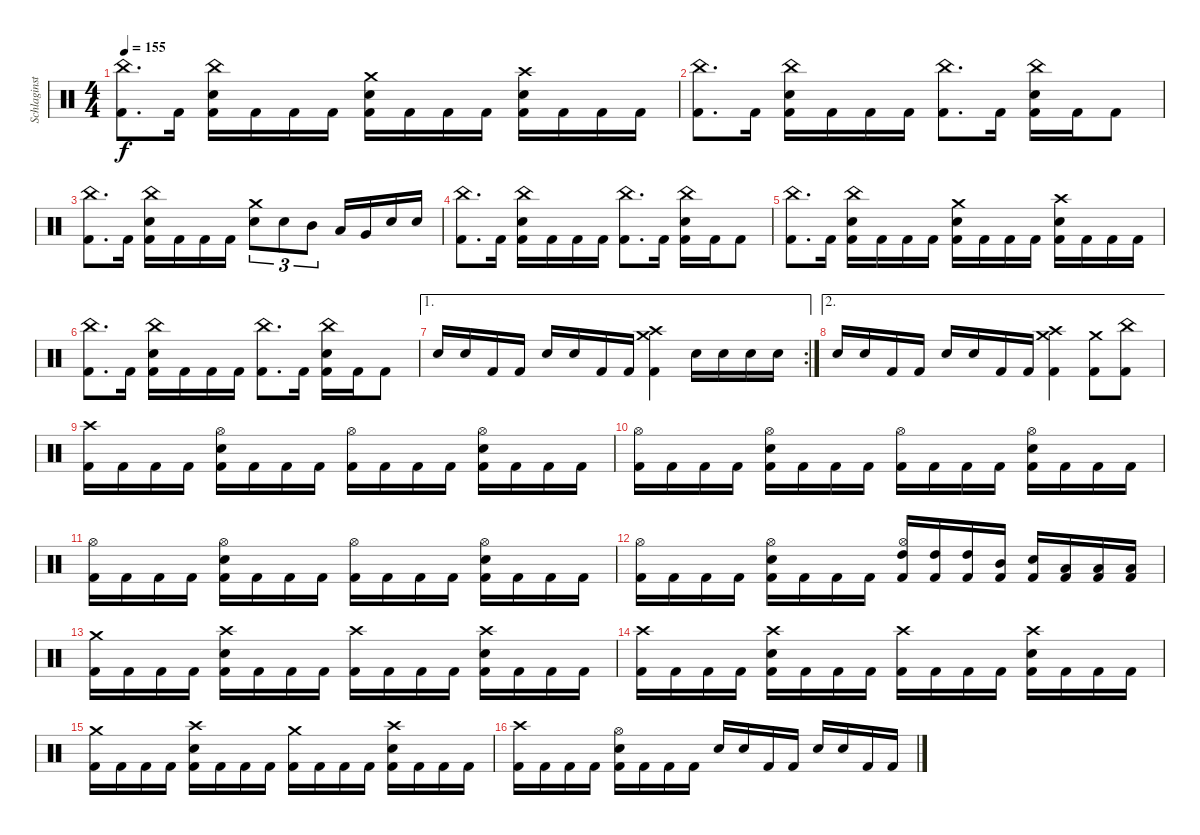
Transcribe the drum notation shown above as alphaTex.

\track ("Schlaginstrumente - Auswahl" "Schlaginst") {instrument percussion}
\staff {score}
\articulation defaults
\ts (4 4)
\tempo 155
\clef neutral
\ks c
("China (hit)" "Kick (hit) 2").8{d dy f} "Kick (hit) 2".16 ("China (hit)" "Electric Snare (hit)" "Kick (hit) 2").16 "Kick (hit) 2".16 "Kick (hit) 2".16 "Kick (hit) 2".16 ("Crash medium (hit)" "Electric Snare (hit)" "Kick (hit) 2").16 "Kick (hit) 2".16 "Kick (hit) 2".16 "Kick (hit) 2".16 ("Crash high (hit)" "Electric Snare (hit)" "Kick (hit) 2").16 "Kick (hit) 2".16 "Kick (hit) 2".16 "Kick (hit) 2".16 |
("China (hit)" "Kick (hit) 2").8{d} "Kick (hit) 2".16 ("China (hit)" "Electric Snare (hit)" "Kick (hit) 2").16 "Kick (hit) 2".16 "Kick (hit) 2".16 "Kick (hit) 2".16 ("China (hit)" "Kick (hit) 2").8{d} "Kick (hit) 2".16 ("China (hit)" "Electric Snare (hit)" "Kick (hit) 2").16 "Kick (hit) 2".16 "Kick (hit) 2".8 |
("China (hit)" "Kick (hit) 2").8{d} "Kick (hit) 2".16 ("China (hit)" "Electric Snare (hit)" "Kick (hit) 2").16 "Kick (hit) 2".16 "Kick (hit) 2".16 "Kick (hit) 2".16 ("Crash medium (hit)" "Electric Snare (hit)").8{tu (3 2)} "Electric Snare (hit)".8{tu (3 2)} "Mid Tom (hit)".8{tu (3 2)} "Low Tom (hit)".16 "Very Low Tom (hit)".16 "Electric Snare (hit)".16 "Electric Snare (hit)".16 |
("China (hit)" "Kick (hit) 2").8{d} "Kick (hit) 2".16 ("China (hit)" "Electric Snare (hit)" "Kick (hit) 2").16 "Kick (hit) 2".16 "Kick (hit) 2".16 "Kick (hit) 2".16 ("China (hit)" "Kick (hit) 2").8{d} "Kick (hit) 2".16 ("China (hit)" "Electric Snare (hit)" "Kick (hit) 2").16 "Kick (hit) 2".16 "Kick (hit) 2".8 |
("China (hit)" "Kick (hit) 2").8{d} "Kick (hit) 2".16 ("China (hit)" "Electric Snare (hit)" "Kick (hit) 2").16 "Kick (hit) 2".16 "Kick (hit) 2".16 "Kick (hit) 2".16 ("Crash medium (hit)" "Electric Snare (hit)" "Kick (hit) 2").16 "Kick (hit) 2".16 "Kick (hit) 2".16 "Kick (hit) 2".16 ("Crash high (hit)" "Electric Snare (hit)" "Kick (hit) 2").16 "Kick (hit) 2".16 "Kick (hit) 2".16 "Kick (hit) 2".16 |
("China (hit)" "Kick (hit) 2").8{d} "Kick (hit) 2".16 ("China (hit)" "Electric Snare (hit)" "Kick (hit) 2").16 "Kick (hit) 2".16 "Kick (hit) 2".16 "Kick (hit) 2".16 ("China (hit)" "Kick (hit) 2").8{d} "Kick (hit) 2".16 ("China (hit)" "Electric Snare (hit)" "Kick (hit) 2").16 "Kick (hit) 2".16 "Kick (hit) 2".8 |
\ae 1
\rc 2 "Electric Snare (hit)".16 "Electric Snare (hit)".16 "Kick (hit) 2".16 "Kick (hit) 2".16 "Electric Snare (hit)".16 "Electric Snare (hit)".16 "Kick (hit) 2".16 "Kick (hit) 2".16
("Crash medium (hit)" "Crash high (hit)" "Kick (hit) 2").4 "Electric Snare (hit)".16 "Electric Snare (hit)".16 "Electric Snare (hit)".16 "Electric Snare (hit)".16 |
\ae 2 "Electric Snare (hit)".16 "Electric Snare (hit)".16 "Kick (hit) 2".16 "Kick (hit) 2".16 "Electric Snare (hit)".16 "Electric Snare (hit)".16 "Kick (hit) 2".16 "Kick (hit) 2".16
("Crash medium (hit)" "Crash high (hit)" "Kick (hit) 2").4 ("Crash medium (hit)" "Kick (hit) 2").8 ("China (hit)" "Kick (hit) 2").8 |
("Crash high (hit)" "Kick (hit) 2").16 "Kick (hit) 2".16 "Kick (hit) 2".16 "Kick (hit) 2".16 ("Hi-Hat (open)" "Electric Snare (hit)" "Kick (hit) 2").16 "Kick (hit) 2".16 "Kick (hit) 2".16 "Kick (hit) 2".16 ("Hi-Hat (open)" "Kick (hit) 2").16 "Kick (hit) 2".16 "Kick (hit) 2".16 "Kick (hit) 2".16 ("Hi-Hat (open)" "Electric Snare (hit)" "Kick (hit) 2").16 "Kick (hit) 2".16 "Kick (hit) 2".16 "Kick (hit) 2".16 |
("Hi-Hat (open)" "Kick (hit) 2").16 "Kick (hit) 2".16 "Kick (hit) 2".16 "Kick (hit) 2".16 ("Hi-Hat (open)" "Electric Snare (hit)" "Kick (hit) 2").16 "Kick (hit) 2".16 "Kick (hit) 2".16 "Kick (hit) 2".16 ("Hi-Hat (open)" "Kick (hit) 2").16 "Kick (hit) 2".16 "Kick (hit) 2".16 "Kick (hit) 2".16 ("Hi-Hat (open)" "Electric Snare (hit)" "Kick (hit) 2").16 "Kick (hit) 2".16 "Kick (hit) 2".16 "Kick (hit) 2".16 |
("Hi-Hat (open)" "Kick (hit) 2").16 "Kick (hit) 2".16 "Kick (hit) 2".16 "Kick (hit) 2".16 ("Hi-Hat (open)" "Electric Snare (hit)" "Kick (hit) 2").16 "Kick (hit) 2".16 "Kick (hit) 2".16 "Kick (hit) 2".16 ("Hi-Hat (open)" "Kick (hit) 2").16 "Kick (hit) 2".16 "Kick (hit) 2".16 "Kick (hit) 2".16 ("Hi-Hat (open)" "Electric Snare (hit)" "Kick (hit) 2").16 "Kick (hit) 2".16 "Kick (hit) 2".16 "Kick (hit) 2".16 |
("Hi-Hat (open)" "Kick (hit) 2").16 "Kick (hit) 2".16 "Kick (hit) 2".16 "Kick (hit) 2".16 ("Hi-Hat (open)" "Electric Snare (hit)" "Kick (hit) 2").16 "Kick (hit) 2".16 "Kick (hit) 2".16 "Kick (hit) 2".16 ("Hi-Hat (open)" "High Tom (hit)" "Kick (hit) 2").16 ("High Tom (hit)" "Kick (hit) 2").16 ("High Tom (hit)" "Kick (hit) 2").16 ("Mid Tom (hit)" "Kick (hit) 2").16 ("Electric Snare (hit)" "Kick (hit) 2").16 ("Low Tom (hit)" "Kick (hit) 2").16 ("Low Tom (hit)" "Kick (hit) 2").16 ("Low Tom (hit)" "Kick (hit) 2").16 |
("Crash medium (hit)" "Kick (hit) 2").16 "Kick (hit) 2".16 "Kick (hit) 2".16 "Kick (hit) 2".16 ("Crash high (hit)" "Electric Snare (hit)" "Kick (hit) 2").16 "Kick (hit) 2".16 "Kick (hit) 2".16 "Kick (hit) 2".16 ("Crash high (hit)" "Kick (hit) 2").16 "Kick (hit) 2".16 "Kick (hit) 2".16 "Kick (hit) 2".16 ("Crash high (hit)" "Electric Snare (hit)" "Kick (hit) 2").16 "Kick (hit) 2".16 "Kick (hit) 2".16 "Kick (hit) 2".16 |
("Crash high (hit)" "Kick (hit) 2").16 "Kick (hit) 2".16 "Kick (hit) 2".16 "Kick (hit) 2".16 ("Crash high (hit)" "Electric Snare (hit)" "Kick (hit) 2").16 "Kick (hit) 2".16 "Kick (hit) 2".16 "Kick (hit) 2".16 ("Crash high (hit)" "Kick (hit) 2").16 "Kick (hit) 2".16 "Kick (hit) 2".16 "Kick (hit) 2".16 ("Crash high (hit)" "Electric Snare (hit)" "Kick (hit) 2").16 "Kick (hit) 2".16 "Kick (hit) 2".16 "Kick (hit) 2".16 |
("Crash medium (hit)" "Kick (hit) 2").16 "Kick (hit) 2".16 "Kick (hit) 2".16 "Kick (hit) 2".16 ("Crash high (hit)" "Electric Snare (hit)" "Kick (hit) 2").16 "Kick (hit) 2".16 "Kick (hit) 2".16 "Kick (hit) 2".16 ("Crash medium (hit)" "Kick (hit) 2").16 "Kick (hit) 2".16 "Kick (hit) 2".16 "Kick (hit) 2".16 ("Crash high (hit)" "Electric Snare (hit)" "Kick (hit) 2").16 "Kick (hit) 2".16 "Kick (hit) 2".16 "Kick (hit) 2".16 |
("Crash high (hit)" "Kick (hit) 2").16 "Kick (hit) 2".16 "Kick (hit) 2".16 "Kick (hit) 2".16 ("Hi-Hat (open)" "Electric Snare (hit)" "Kick (hit) 2").16 "Kick (hit) 2".16 "Kick (hit) 2".16 "Kick (hit) 2".16 "Electric Snare (hit)".16 "Electric Snare (hit)".16 "Kick (hit) 2".16 "Kick (hit) 2".16 "Electric Snare (hit)".16 "Electric Snare (hit)".16 "Kick (hit) 2".16 "Kick (hit) 2".16
